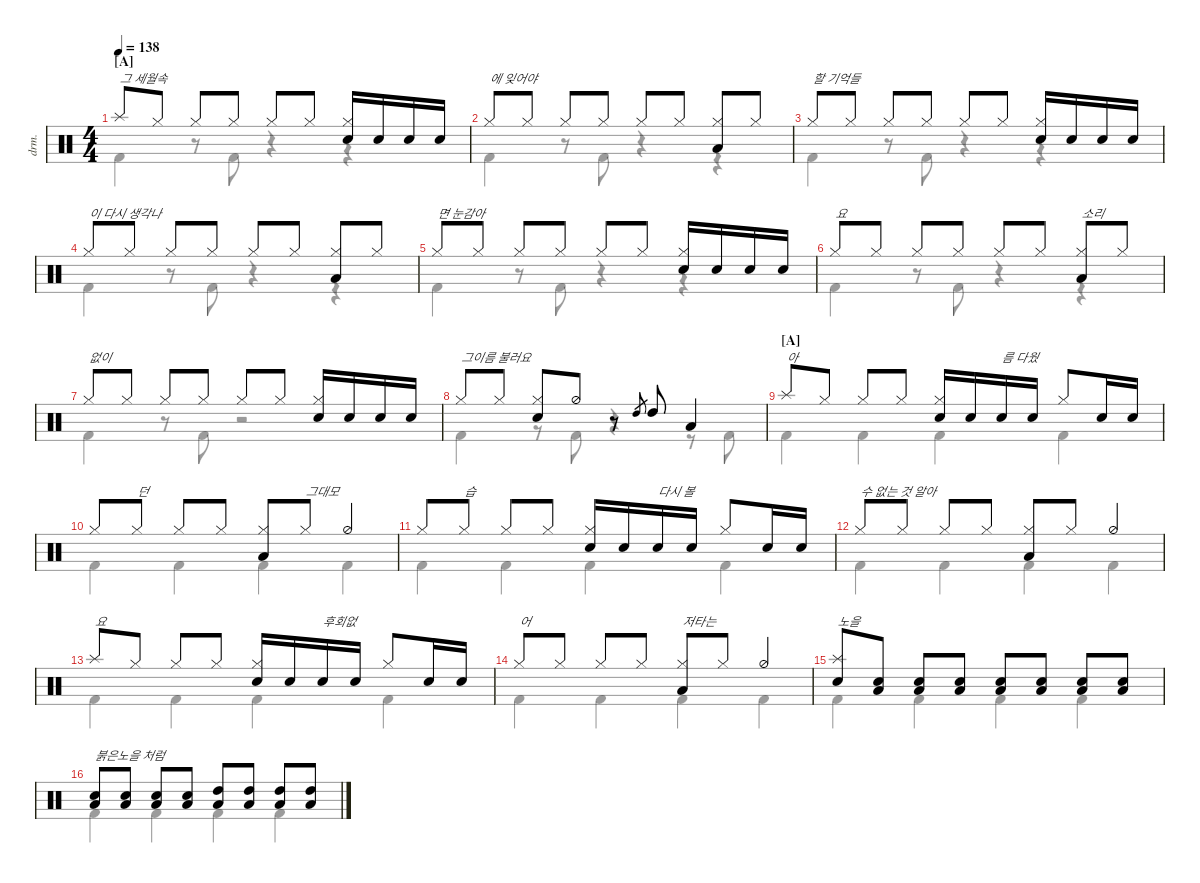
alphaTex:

\defaultSystemsLayout 4
\hideDynamics
\bracketExtendMode nobrackets
\track ("Drumkit" "drm.") {instrument percussion}
\staff {score}
\articulation defaults
\voice
\ts (4 4)
\section ("A" "")
\tempo 138
\clef neutral
\ks c "Splash (hit)".8{txt "그 세월속" dy mf beam Up} "Hi-Hat (closed)".8{beam Up} "Hi-Hat (closed)".8{beam Up} "Hi-Hat (closed)".8{beam Up} "Hi-Hat (closed)".8{beam Up} "Hi-Hat (closed)".8{beam Up}
("Hi-Hat (closed)" "Snare (hit) 2").16{beam Up} "Snare (hit) 2".16{beam Up} "Snare (hit) 2".16{beam Up} "Snare (hit) 2".16{beam Up} |
"Hi-Hat (closed)".8{txt "에 잊어야" beam Up} "Hi-Hat (closed)".8{beam Up} "Hi-Hat (closed)".8{beam Up} "Hi-Hat (closed)".8{beam Up} "Hi-Hat (closed)".8{beam Up} "Hi-Hat (closed)".8{beam Up} ("Hi-Hat (closed)" "Low Tom (hit)").8{beam Up} "Hi-Hat (closed)".8{beam Up} |
"Hi-Hat (closed)".8{txt "할 기억들" beam Up} "Hi-Hat (closed)".8{beam Up} "Hi-Hat (closed)".8{beam Up} "Hi-Hat (closed)".8{beam Up} "Hi-Hat (closed)".8{beam Up} "Hi-Hat (closed)".8{beam Up} ("Hi-Hat (closed)" "Snare (hit) 2").16{beam Up} "Snare (hit) 2".16{beam Up} "Snare (hit) 2".16{beam Up} "Snare (hit) 2".16{beam Up} |
"Hi-Hat (closed)".8{txt "이 다시 생각나" beam Up} "Hi-Hat (closed)".8{beam Up} "Hi-Hat (closed)".8{beam Up} "Hi-Hat (closed)".8{beam Up} "Hi-Hat (closed)".8{beam Up} "Hi-Hat (closed)".8{beam Up} ("Hi-Hat (closed)" "Low Tom (hit)").8{beam Up} "Hi-Hat (closed)".8{beam Up} |
"Hi-Hat (closed)".8{txt "면 눈감아" beam Up} "Hi-Hat (closed)".8{beam Up} "Hi-Hat (closed)".8{beam Up} "Hi-Hat (closed)".8{beam Up} "Hi-Hat (closed)".8{beam Up} "Hi-Hat (closed)".8{beam Up} ("Hi-Hat (closed)" "Snare (hit) 2").16{beam Up} "Snare (hit) 2".16{beam Up} "Snare (hit) 2".16{beam Up} "Snare (hit) 2".16{beam Up} |
"Hi-Hat (closed)".8{txt "요 " beam Up} "Hi-Hat (closed)".8{beam Up} "Hi-Hat (closed)".8{beam Up} "Hi-Hat (closed)".8{beam Up} "Hi-Hat (closed)".8{beam Up} "Hi-Hat (closed)".8{beam Up} ("Hi-Hat (closed)" "Low Tom (hit)").8{txt "소리" beam Up} "Hi-Hat (closed)".8{beam Up} |
"Hi-Hat (closed)".8{txt "없이" beam Up} "Hi-Hat (closed)".8{beam Up} "Hi-Hat (closed)".8{beam Up} "Hi-Hat (closed)".8{beam Up} "Hi-Hat (closed)".8{beam Up} "Hi-Hat (closed)".8{beam Up} ("Hi-Hat (closed)" "Snare (hit) 2").16{beam Up} "Snare (hit) 2".16{beam Up} "Snare (hit) 2".16{beam Up} "Snare (hit) 2".16{beam Up} |
"Hi-Hat (closed)".8{txt "그이름 불러요" beam Up} "Hi-Hat (closed)".8{beam Up} ("Hi-Hat (closed)" "Snare (hit) 2").8{beam Up} "Hi-Hat (half)".8{beam Up} r.8{beam Up} "High Tom (hit)".8{gr beam Up} "High Tom (hit)".8{beam Up} "Low Tom (hit)".4{beam Up} |
\section ("A" "")
"Splash (hit)".8{txt "아" beam Up} "Hi-Hat (closed)".8{beam Up} "Hi-Hat (closed)".8{beam Up} "Hi-Hat (closed)".8{beam Up} ("Hi-Hat (closed)" "Snare (hit) 2").16{beam Up} "Snare (hit) 2".16{beam Up} "Snare (hit) 2".16{txt "름 다웠" beam Up} "Snare (hit) 2".16{beam Up} "Hi-Hat (closed)".8{beam Up} "Snare (hit) 2".16{beam Up} "Snare (hit) 2".16{beam Up} |
"Hi-Hat (closed)".8{beam Up} "Hi-Hat (closed)".8{txt "던" beam Up} "Hi-Hat (closed)".8{beam Up} "Hi-Hat (closed)".8{beam Up} ("Hi-Hat (closed)" "Low Tom (hit)").8{beam Up} "Hi-Hat (closed)".8{txt "그대모" beam Up} "Hi-Hat (half)".4{beam Up} |
"Hi-Hat (closed)".8{beam Up} "Hi-Hat (closed)".8{txt "습" beam Up} "Hi-Hat (closed)".8{beam Up} "Hi-Hat (closed)".8{beam Up} ("Hi-Hat (closed)" "Snare (hit) 2").16{beam Up} "Snare (hit) 2".16{beam Up} "Snare (hit) 2".16{txt "다시 볼" beam Up} "Snare (hit) 2".16{beam Up} "Hi-Hat (closed)".8{beam Up} "Snare (hit) 2".16{beam Up} "Snare (hit) 2".16{beam Up} |
"Hi-Hat (closed)".8{txt "수 없는 것 알아" beam Up} "Hi-Hat (closed)".8{beam Up} "Hi-Hat (closed)".8{beam Up} "Hi-Hat (closed)".8{beam Up} ("Hi-Hat (closed)" "Low Tom (hit)").8{beam Up} "Hi-Hat (closed)".8{beam Up} "Hi-Hat (half)".4{beam Up} |
"Splash (hit)".8{txt "요" beam Up} "Hi-Hat (closed)".8{beam Up} "Hi-Hat (closed)".8{beam Up} "Hi-Hat (closed)".8{beam Up} ("Hi-Hat (closed)" "Snare (hit) 2").16{beam Up} "Snare (hit) 2".16{beam Up} "Snare (hit) 2".16{txt "후회없" beam Up} "Snare (hit) 2".16{beam Up} "Hi-Hat (closed)".8{beam Up} "Snare (hit) 2".16{beam Up} "Snare (hit) 2".16{beam Up} |
"Hi-Hat (closed)".8{txt "어" beam Up} "Hi-Hat (closed)".8{beam Up} "Hi-Hat (closed)".8{beam Up} "Hi-Hat (closed)".8{beam Up} ("Hi-Hat (closed)" "Low Tom (hit)").8{txt "저타는" beam Up} "Hi-Hat (closed)".8{beam Up} "Hi-Hat (half)".4{beam Up} |
("Splash (hit)" "Snare (hit) 2").8{txt "노을" beam Up} ("Snare (hit) 2" "Low Tom (hit)").8{beam Up} ("Snare (hit) 2" "Low Tom (hit)").8{beam Up} ("Snare (hit) 2" "Low Tom (hit)").8{beam Up} ("Snare (hit) 2" "Low Tom (hit)").8{beam Up} ("Snare (hit) 2" "Low Tom (hit)").8{beam Up} ("Snare (hit) 2" "Low Tom (hit)").8{beam Up} ("Snare (hit) 2" "Low Tom (hit)").8{beam Up} |
("Snare (hit) 2" "Low Tom (hit)").8{txt "붉은노을 처럼" beam Up} ("Snare (hit) 2" "Low Tom (hit)").8{beam Up} ("Snare (hit) 2" "Low Tom (hit)").8{beam Up} ("Snare (hit) 2" "Low Tom (hit)").8{beam Up} ("High Tom (hit)" "Low Tom (hit)").8{beam Up} ("High Tom (hit)" "Low Tom (hit)").8{beam Up} ("High Tom (hit)" "Low Tom (hit)").8{beam Up} ("High Tom (hit)" "Low Tom (hit)").8{beam Up}
\voice
\clef neutral
\ottava regular
\simile none
\ks c
|
|
|
|
|
|
|
|
|
|
|
|
|
|
|
\voice
\clef neutral
\ottava regular
\simile none
\ks c "Kick (hit) 2".4{dy mf beam Down}
r.8{beam Down} "Kick (hit) 2".8{beam Down} r.4{beam Down} r.4{beam Down} |
"Kick (hit) 2".4{beam Down} r.8{beam Down} "Kick (hit) 2".8{beam Down} r.4{beam Down} r.4{beam Down} |
"Kick (hit) 2".4{beam Down} r.8{beam Down} "Kick (hit) 2".8{beam Down} r.4{beam Down} r.4{beam Down} |
"Kick (hit) 2".4{beam Down} r.8{beam Down} "Kick (hit) 2".8{beam Down} r.4{beam Down} r.4{beam Down} |
"Kick (hit) 2".4{beam Down} r.8{beam Down} "Kick (hit) 2".8{beam Down} r.4{beam Down} r.4{beam Down} |
"Kick (hit) 2".4{beam Down} r.8{beam Down} "Kick (hit) 2".8{beam Down} r.4{beam Down} r.4{beam Down} |
"Kick (hit) 2".4{beam Down} r.8{beam Down} "Kick (hit) 2".8{beam Down} r.2{beam Down} |
"Kick (hit) 2".4{beam Down} r.8{beam Down} "Kick (hit) 2".8{beam Down} r.4{beam Down} r.8{beam Down} "Kick (hit) 2".8{beam Down} |
"Kick (hit) 2".4{beam Down} "Kick (hit) 2".4{beam Down} "Kick (hit) 2".4{beam Down} "Kick (hit) 2".4{beam Down} |
"Kick (hit) 2".4{beam Down} "Kick (hit) 2".4{beam Down} "Kick (hit) 2".4{beam Down} "Kick (hit) 2".4{beam Down} |
"Kick (hit) 2".4{beam Down} "Kick (hit) 2".4{beam Down} "Kick (hit) 2".4{beam Down} "Kick (hit) 2".4{beam Down} |
"Kick (hit) 2".4{beam Down} "Kick (hit) 2".4{beam Down} "Kick (hit) 2".4{beam Down} "Kick (hit) 2".4{beam Down} |
"Kick (hit) 2".4{beam Down} "Kick (hit) 2".4{beam Down} "Kick (hit) 2".4{beam Down} "Kick (hit) 2".4{beam Down} |
"Kick (hit) 2".4{beam Down} "Kick (hit) 2".4{beam Down} "Kick (hit) 2".4{beam Down} "Kick (hit) 2".4{beam Down} |
"Kick (hit) 2".4{beam Down} "Kick (hit) 2".4{beam Down} "Kick (hit) 2".4{beam Down} "Kick (hit) 2".4{beam Down} |
"Kick (hit) 2".4{beam Down} "Kick (hit) 2".4{beam Down} "Kick (hit) 2".4{beam Down} "Kick (hit) 2".4{beam Down}
